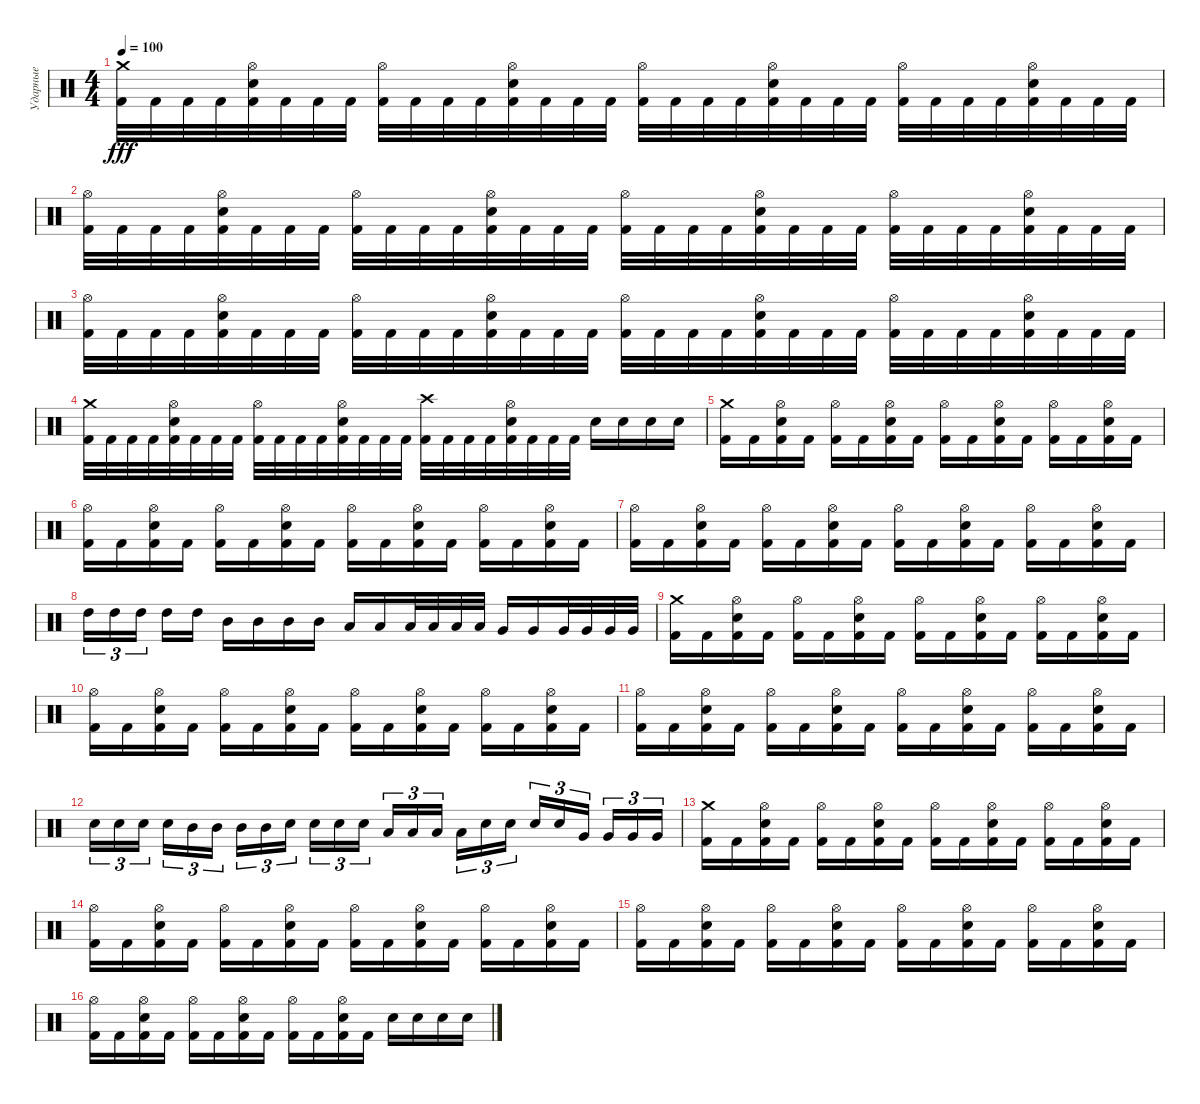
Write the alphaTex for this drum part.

\track ("Ударные" "Ударные") {instrument percussion}
\staff {score}
\articulation defaults
\ts (4 4)
\tempo 100
\clef neutral
\ks c
("Crash medium (hit)" "Kick (hit) 2").32{dy fff} "Kick (hit) 2".32 "Kick (hit) 2".32 "Kick (hit) 2".32 ("Hi-Hat (open)" "Electric Snare (hit)" "Kick (hit) 2").32 "Kick (hit) 2".32 "Kick (hit) 2".32 "Kick (hit) 2".32 ("Hi-Hat (open)" "Kick (hit) 2").32 "Kick (hit) 2".32 "Kick (hit) 2".32 "Kick (hit) 2".32 ("Hi-Hat (open)" "Electric Snare (hit)" "Kick (hit) 2").32 "Kick (hit) 2".32 "Kick (hit) 2".32 "Kick (hit) 2".32 ("Hi-Hat (open)" "Kick (hit) 2").32 "Kick (hit) 2".32 "Kick (hit) 2".32 "Kick (hit) 2".32 ("Hi-Hat (open)" "Electric Snare (hit)" "Kick (hit) 2").32 "Kick (hit) 2".32 "Kick (hit) 2".32 "Kick (hit) 2".32 ("Hi-Hat (open)" "Kick (hit) 2").32 "Kick (hit) 2".32 "Kick (hit) 2".32 "Kick (hit) 2".32 ("Hi-Hat (open)" "Electric Snare (hit)" "Kick (hit) 2").32 "Kick (hit) 2".32 "Kick (hit) 2".32 "Kick (hit) 2".32 |
("Hi-Hat (open)" "Kick (hit) 2").32 "Kick (hit) 2".32 "Kick (hit) 2".32 "Kick (hit) 2".32 ("Hi-Hat (open)" "Electric Snare (hit)" "Kick (hit) 2").32 "Kick (hit) 2".32 "Kick (hit) 2".32 "Kick (hit) 2".32 ("Hi-Hat (open)" "Kick (hit) 2").32 "Kick (hit) 2".32 "Kick (hit) 2".32 "Kick (hit) 2".32 ("Hi-Hat (open)" "Electric Snare (hit)" "Kick (hit) 2").32 "Kick (hit) 2".32 "Kick (hit) 2".32 "Kick (hit) 2".32 ("Hi-Hat (open)" "Kick (hit) 2").32 "Kick (hit) 2".32 "Kick (hit) 2".32 "Kick (hit) 2".32 ("Hi-Hat (open)" "Electric Snare (hit)" "Kick (hit) 2").32 "Kick (hit) 2".32 "Kick (hit) 2".32 "Kick (hit) 2".32 ("Hi-Hat (open)" "Kick (hit) 2").32 "Kick (hit) 2".32 "Kick (hit) 2".32 "Kick (hit) 2".32 ("Hi-Hat (open)" "Electric Snare (hit)" "Kick (hit) 2").32 "Kick (hit) 2".32 "Kick (hit) 2".32 "Kick (hit) 2".32 |
("Hi-Hat (open)" "Kick (hit) 2").32 "Kick (hit) 2".32 "Kick (hit) 2".32 "Kick (hit) 2".32 ("Hi-Hat (open)" "Electric Snare (hit)" "Kick (hit) 2").32 "Kick (hit) 2".32 "Kick (hit) 2".32 "Kick (hit) 2".32 ("Hi-Hat (open)" "Kick (hit) 2").32 "Kick (hit) 2".32 "Kick (hit) 2".32 "Kick (hit) 2".32 ("Hi-Hat (open)" "Electric Snare (hit)" "Kick (hit) 2").32 "Kick (hit) 2".32 "Kick (hit) 2".32 "Kick (hit) 2".32 ("Hi-Hat (open)" "Kick (hit) 2").32 "Kick (hit) 2".32 "Kick (hit) 2".32 "Kick (hit) 2".32 ("Hi-Hat (open)" "Electric Snare (hit)" "Kick (hit) 2").32 "Kick (hit) 2".32 "Kick (hit) 2".32 "Kick (hit) 2".32 ("Hi-Hat (open)" "Kick (hit) 2").32 "Kick (hit) 2".32 "Kick (hit) 2".32 "Kick (hit) 2".32 ("Hi-Hat (open)" "Electric Snare (hit)" "Kick (hit) 2").32 "Kick (hit) 2".32 "Kick (hit) 2".32 "Kick (hit) 2".32 |
("Crash medium (hit)" "Kick (hit) 2").32 "Kick (hit) 2".32 "Kick (hit) 2".32 "Kick (hit) 2".32 ("Hi-Hat (open)" "Electric Snare (hit)" "Kick (hit) 2").32 "Kick (hit) 2".32 "Kick (hit) 2".32 "Kick (hit) 2".32 ("Hi-Hat (open)" "Kick (hit) 2").32 "Kick (hit) 2".32 "Kick (hit) 2".32 "Kick (hit) 2".32 ("Hi-Hat (open)" "Electric Snare (hit)" "Kick (hit) 2").32 "Kick (hit) 2".32 "Kick (hit) 2".32 "Kick (hit) 2".32 ("Crash high (hit)" "Kick (hit) 2").32 "Kick (hit) 2".32 "Kick (hit) 2".32 "Kick (hit) 2".32 ("Hi-Hat (open)" "Electric Snare (hit)" "Kick (hit) 2").32 "Kick (hit) 2".32 "Kick (hit) 2".32 "Kick (hit) 2".32 "Electric Snare (hit)".16 "Electric Snare (hit)".16 "Electric Snare (hit)".16 "Electric Snare (hit)".16 |
("Crash medium (hit)" "Kick (hit) 2").16 "Kick (hit) 2".16 ("Hi-Hat (open)" "Electric Snare (hit)" "Kick (hit) 2").16 "Kick (hit) 2".16 ("Hi-Hat (open)" "Kick (hit) 2").16 "Kick (hit) 2".16 ("Hi-Hat (open)" "Electric Snare (hit)" "Kick (hit) 2").16 "Kick (hit) 2".16 ("Hi-Hat (open)" "Kick (hit) 2").16 "Kick (hit) 2".16 ("Hi-Hat (open)" "Electric Snare (hit)" "Kick (hit) 2").16 "Kick (hit) 2".16 ("Hi-Hat (open)" "Kick (hit) 2").16 "Kick (hit) 2".16 ("Hi-Hat (open)" "Electric Snare (hit)" "Kick (hit) 2").16 "Kick (hit) 2".16 |
("Hi-Hat (open)" "Kick (hit) 2").16 "Kick (hit) 2".16 ("Hi-Hat (open)" "Electric Snare (hit)" "Kick (hit) 2").16 "Kick (hit) 2".16 ("Hi-Hat (open)" "Kick (hit) 2").16 "Kick (hit) 2".16 ("Hi-Hat (open)" "Electric Snare (hit)" "Kick (hit) 2").16 "Kick (hit) 2".16 ("Hi-Hat (open)" "Kick (hit) 2").16 "Kick (hit) 2".16 ("Hi-Hat (open)" "Electric Snare (hit)" "Kick (hit) 2").16 "Kick (hit) 2".16 ("Hi-Hat (open)" "Kick (hit) 2").16 "Kick (hit) 2".16 ("Hi-Hat (open)" "Electric Snare (hit)" "Kick (hit) 2").16 "Kick (hit) 2".16 |
("Hi-Hat (open)" "Kick (hit) 2").16 "Kick (hit) 2".16 ("Hi-Hat (open)" "Electric Snare (hit)" "Kick (hit) 2").16 "Kick (hit) 2".16 ("Hi-Hat (open)" "Kick (hit) 2").16 "Kick (hit) 2".16 ("Hi-Hat (open)" "Electric Snare (hit)" "Kick (hit) 2").16 "Kick (hit) 2".16 ("Hi-Hat (open)" "Kick (hit) 2").16 "Kick (hit) 2".16 ("Hi-Hat (open)" "Electric Snare (hit)" "Kick (hit) 2").16 "Kick (hit) 2".16 ("Hi-Hat (open)" "Kick (hit) 2").16 "Kick (hit) 2".16 ("Hi-Hat (open)" "Electric Snare (hit)" "Kick (hit) 2").16 "Kick (hit) 2".16 |
"High Tom (hit)".16{tu (3 2)} "High Tom (hit)".16{tu (3 2)} "High Tom (hit)".16{tu (3 2) beam splitsecondary} "High Tom (hit)".16 "High Tom (hit)".16 "Mid Tom (hit)".16 "Mid Tom (hit)".16 "Mid Tom (hit)".16 "Mid Tom (hit)".16 "Low Tom (hit)".16 "Low Tom (hit)".16 "Low Tom (hit)".32 "Low Tom (hit)".32 "Low Tom (hit)".32 "Low Tom (hit)".32 "Very Low Tom (hit)".16 "Very Low Tom (hit)".16 "Very Low Tom (hit)".32 "Very Low Tom (hit)".32 "Very Low Tom (hit)".32 "Very Low Tom (hit)".32 |
("Crash medium (hit)" "Kick (hit) 2").16 "Kick (hit) 2".16 ("Hi-Hat (open)" "Electric Snare (hit)" "Kick (hit) 2").16 "Kick (hit) 2".16 ("Hi-Hat (open)" "Kick (hit) 2").16 "Kick (hit) 2".16 ("Hi-Hat (open)" "Electric Snare (hit)" "Kick (hit) 2").16 "Kick (hit) 2".16 ("Hi-Hat (open)" "Kick (hit) 2").16 "Kick (hit) 2".16 ("Hi-Hat (open)" "Electric Snare (hit)" "Kick (hit) 2").16 "Kick (hit) 2".16 ("Hi-Hat (open)" "Kick (hit) 2").16 "Kick (hit) 2".16 ("Hi-Hat (open)" "Electric Snare (hit)" "Kick (hit) 2").16 "Kick (hit) 2".16 |
("Hi-Hat (open)" "Kick (hit) 2").16 "Kick (hit) 2".16 ("Hi-Hat (open)" "Electric Snare (hit)" "Kick (hit) 2").16 "Kick (hit) 2".16 ("Hi-Hat (open)" "Kick (hit) 2").16 "Kick (hit) 2".16 ("Hi-Hat (open)" "Electric Snare (hit)" "Kick (hit) 2").16 "Kick (hit) 2".16 ("Hi-Hat (open)" "Kick (hit) 2").16 "Kick (hit) 2".16 ("Hi-Hat (open)" "Electric Snare (hit)" "Kick (hit) 2").16 "Kick (hit) 2".16 ("Hi-Hat (open)" "Kick (hit) 2").16 "Kick (hit) 2".16 ("Hi-Hat (open)" "Electric Snare (hit)" "Kick (hit) 2").16 "Kick (hit) 2".16 |
("Hi-Hat (open)" "Kick (hit) 2").16 "Kick (hit) 2".16 ("Hi-Hat (open)" "Electric Snare (hit)" "Kick (hit) 2").16 "Kick (hit) 2".16 ("Hi-Hat (open)" "Kick (hit) 2").16 "Kick (hit) 2".16 ("Hi-Hat (open)" "Electric Snare (hit)" "Kick (hit) 2").16 "Kick (hit) 2".16 ("Hi-Hat (open)" "Kick (hit) 2").16 "Kick (hit) 2".16 ("Hi-Hat (open)" "Electric Snare (hit)" "Kick (hit) 2").16 "Kick (hit) 2".16 ("Hi-Hat (open)" "Kick (hit) 2").16 "Kick (hit) 2".16 ("Hi-Hat (open)" "Electric Snare (hit)" "Kick (hit) 2").16 "Kick (hit) 2".16 |
"Electric Snare (hit)".16{tu (3 2)} "Electric Snare (hit)".16{tu (3 2)} "Electric Snare (hit)".16{tu (3 2) beam splitsecondary} "Electric Snare (hit)".16{tu (3 2)} "Mid Tom (hit)".16{tu (3 2)} "Mid Tom (hit)".16{tu (3 2)} "Mid Tom (hit)".16{tu (3 2)} "Mid Tom (hit)".16{tu (3 2)} "Electric Snare (hit)".16{tu (3 2) beam splitsecondary} "Electric Snare (hit)".16{tu (3 2)} "Electric Snare (hit)".16{tu (3 2)} "Electric Snare (hit)".16{tu (3 2)} "Low Tom (hit)".16{tu (3 2)} "Low Tom (hit)".16{tu (3 2)} "Low Tom (hit)".16{tu (3 2) beam splitsecondary} "Low Tom (hit)".16{tu (3 2)} "Electric Snare (hit)".16{tu (3 2)} "Electric Snare (hit)".16{tu (3 2)} "Electric Snare (hit)".16{tu (3 2)} "Electric Snare (hit)".16{tu (3 2)} "Very Low Tom (hit)".16{tu (3 2) beam splitsecondary} "Very Low Tom (hit)".16{tu (3 2)} "Very Low Tom (hit)".16{tu (3 2)} "Very Low Tom (hit)".16{tu (3 2)} |
("Crash medium (hit)" "Kick (hit) 2").16 "Kick (hit) 2".16 ("Hi-Hat (open)" "Electric Snare (hit)" "Kick (hit) 2").16 "Kick (hit) 2".16 ("Hi-Hat (open)" "Kick (hit) 2").16 "Kick (hit) 2".16 ("Hi-Hat (open)" "Electric Snare (hit)" "Kick (hit) 2").16 "Kick (hit) 2".16 ("Hi-Hat (open)" "Kick (hit) 2").16 "Kick (hit) 2".16 ("Hi-Hat (open)" "Electric Snare (hit)" "Kick (hit) 2").16 "Kick (hit) 2".16 ("Hi-Hat (open)" "Kick (hit) 2").16 "Kick (hit) 2".16 ("Hi-Hat (open)" "Electric Snare (hit)" "Kick (hit) 2").16 "Kick (hit) 2".16 |
("Hi-Hat (open)" "Kick (hit) 2").16 "Kick (hit) 2".16 ("Hi-Hat (open)" "Electric Snare (hit)" "Kick (hit) 2").16 "Kick (hit) 2".16 ("Hi-Hat (open)" "Kick (hit) 2").16 "Kick (hit) 2".16 ("Hi-Hat (open)" "Electric Snare (hit)" "Kick (hit) 2").16 "Kick (hit) 2".16 ("Hi-Hat (open)" "Kick (hit) 2").16 "Kick (hit) 2".16 ("Hi-Hat (open)" "Electric Snare (hit)" "Kick (hit) 2").16 "Kick (hit) 2".16 ("Hi-Hat (open)" "Kick (hit) 2").16 "Kick (hit) 2".16 ("Hi-Hat (open)" "Electric Snare (hit)" "Kick (hit) 2").16 "Kick (hit) 2".16 |
("Hi-Hat (open)" "Kick (hit) 2").16 "Kick (hit) 2".16 ("Hi-Hat (open)" "Electric Snare (hit)" "Kick (hit) 2").16 "Kick (hit) 2".16 ("Hi-Hat (open)" "Kick (hit) 2").16 "Kick (hit) 2".16 ("Hi-Hat (open)" "Electric Snare (hit)" "Kick (hit) 2").16 "Kick (hit) 2".16 ("Hi-Hat (open)" "Kick (hit) 2").16 "Kick (hit) 2".16 ("Hi-Hat (open)" "Electric Snare (hit)" "Kick (hit) 2").16 "Kick (hit) 2".16 ("Hi-Hat (open)" "Kick (hit) 2").16 "Kick (hit) 2".16 ("Hi-Hat (open)" "Electric Snare (hit)" "Kick (hit) 2").16 "Kick (hit) 2".16 |
("Hi-Hat (open)" "Kick (hit) 2").16 "Kick (hit) 2".16 ("Hi-Hat (open)" "Electric Snare (hit)" "Kick (hit) 2").16 "Kick (hit) 2".16 ("Hi-Hat (open)" "Kick (hit) 2").16 "Kick (hit) 2".16 ("Hi-Hat (open)" "Electric Snare (hit)" "Kick (hit) 2").16 "Kick (hit) 2".16 ("Hi-Hat (open)" "Kick (hit) 2").16 "Kick (hit) 2".16 ("Hi-Hat (open)" "Electric Snare (hit)" "Kick (hit) 2").16 "Kick (hit) 2".16 "Electric Snare (hit)".16 "Electric Snare (hit)".16 "Electric Snare (hit)".16 "Electric Snare (hit)".16
